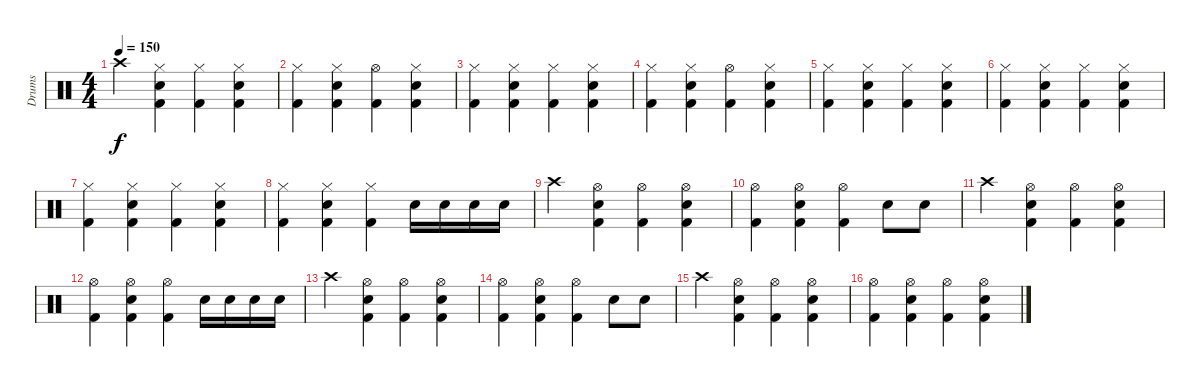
\track ("Drums" "Drums") {instrument percussion}
\staff {score}
\articulation defaults
\ts (4 4)
\tempo 150
\clef neutral
\ks c "Crash high (hit)".4{dy f}
("Hi-Hat (closed)" "Electric Snare (hit)" "Kick (hit) 2").4 ("Hi-Hat (closed)" "Kick (hit) 2").4 ("Hi-Hat (closed)" "Electric Snare (hit)" "Kick (hit) 2").4 |
("Hi-Hat (closed)" "Kick (hit) 2").4 ("Hi-Hat (closed)" "Electric Snare (hit)" "Kick (hit) 2").4 ("Hi-Hat (open)" "Kick (hit) 2").4 ("Hi-Hat (closed)" "Electric Snare (hit)" "Kick (hit) 2").4 |
("Hi-Hat (closed)" "Kick (hit) 2").4 ("Hi-Hat (closed)" "Electric Snare (hit)" "Kick (hit) 2").4 ("Hi-Hat (closed)" "Kick (hit) 2").4 ("Hi-Hat (closed)" "Electric Snare (hit)" "Kick (hit) 2").4 |
("Hi-Hat (closed)" "Kick (hit) 2").4 ("Hi-Hat (closed)" "Electric Snare (hit)" "Kick (hit) 2").4 ("Hi-Hat (open)" "Kick (hit) 2").4 ("Hi-Hat (closed)" "Electric Snare (hit)" "Kick (hit) 2").4 |
("Hi-Hat (closed)" "Kick (hit) 2").4 ("Hi-Hat (closed)" "Electric Snare (hit)" "Kick (hit) 2").4 ("Hi-Hat (closed)" "Kick (hit) 2").4 ("Hi-Hat (closed)" "Electric Snare (hit)" "Kick (hit) 2").4 |
("Hi-Hat (closed)" "Kick (hit) 2").4 ("Hi-Hat (closed)" "Electric Snare (hit)" "Kick (hit) 2").4 ("Hi-Hat (closed)" "Kick (hit) 2").4 ("Hi-Hat (closed)" "Electric Snare (hit)" "Kick (hit) 2").4 |
("Hi-Hat (closed)" "Kick (hit) 2").4 ("Hi-Hat (closed)" "Electric Snare (hit)" "Kick (hit) 2").4 ("Hi-Hat (closed)" "Kick (hit) 2").4 ("Hi-Hat (closed)" "Electric Snare (hit)" "Kick (hit) 2").4 |
("Hi-Hat (closed)" "Kick (hit) 2").4 ("Hi-Hat (closed)" "Electric Snare (hit)" "Kick (hit) 2").4 ("Hi-Hat (closed)" "Kick (hit) 2").4 "Electric Snare (hit)".16 "Electric Snare (hit)".16 "Electric Snare (hit)".16 "Electric Snare (hit)".16 |
"Crash high (hit)".4 ("Hi-Hat (open)" "Electric Snare (hit)" "Kick (hit) 2").4 ("Hi-Hat (open)" "Kick (hit) 2").4 ("Hi-Hat (open)" "Electric Snare (hit)" "Kick (hit) 2").4 |
("Hi-Hat (open)" "Kick (hit) 2").4 ("Hi-Hat (open)" "Electric Snare (hit)" "Kick (hit) 2").4 ("Hi-Hat (open)" "Kick (hit) 2").4 "Electric Snare (hit)".8 "Electric Snare (hit)".8 |
"Crash high (hit)".4 ("Hi-Hat (open)" "Electric Snare (hit)" "Kick (hit) 2").4 ("Hi-Hat (open)" "Kick (hit) 2").4 ("Hi-Hat (open)" "Electric Snare (hit)" "Kick (hit) 2").4 |
("Hi-Hat (open)" "Kick (hit) 2").4 ("Hi-Hat (open)" "Electric Snare (hit)" "Kick (hit) 2").4 ("Hi-Hat (open)" "Kick (hit) 2").4 "Electric Snare (hit)".16 "Electric Snare (hit)".16 "Electric Snare (hit)".16 "Electric Snare (hit)".16 |
"Crash high (hit)".4 ("Hi-Hat (open)" "Electric Snare (hit)" "Kick (hit) 2").4 ("Hi-Hat (open)" "Kick (hit) 2").4 ("Hi-Hat (open)" "Electric Snare (hit)" "Kick (hit) 2").4 |
("Hi-Hat (open)" "Kick (hit) 2").4 ("Hi-Hat (open)" "Electric Snare (hit)" "Kick (hit) 2").4 ("Hi-Hat (open)" "Kick (hit) 2").4 "Electric Snare (hit)".8 "Electric Snare (hit)".8 |
"Crash high (hit)".4 ("Hi-Hat (open)" "Electric Snare (hit)" "Kick (hit) 2").4 ("Hi-Hat (open)" "Kick (hit) 2").4 ("Hi-Hat (open)" "Electric Snare (hit)" "Kick (hit) 2").4 |
("Hi-Hat (open)" "Kick (hit) 2").4 ("Hi-Hat (open)" "Electric Snare (hit)" "Kick (hit) 2").4 ("Hi-Hat (open)" "Kick (hit) 2").4 ("Hi-Hat (open)" "Electric Snare (hit)" "Kick (hit) 2").4
